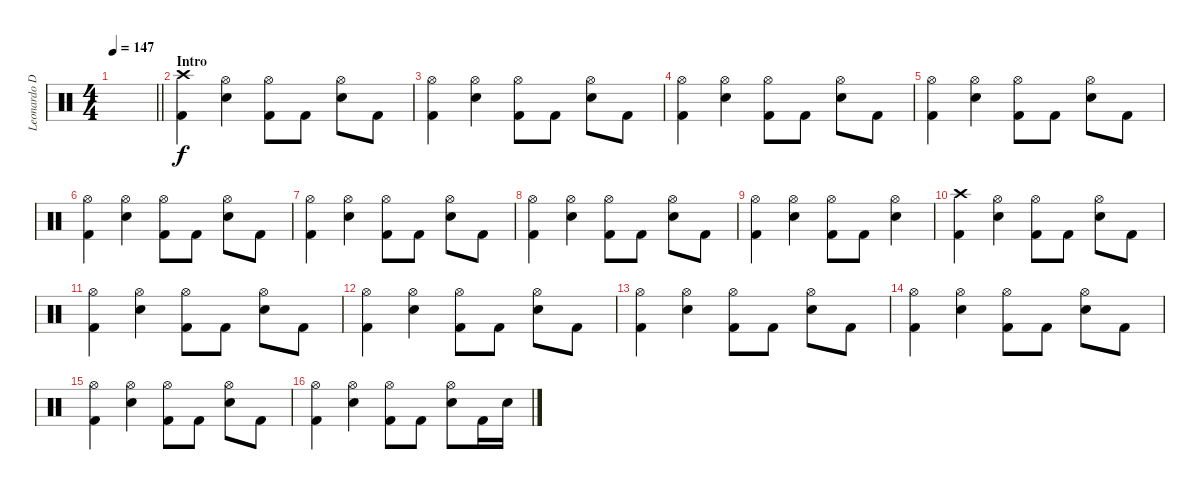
\track ("Leonardo De Cecco" "Leonardo D") {instrument percussion}
\staff {score}
\articulation defaults
\ts (4 4)
\tempo 147
\tempo 80
\tempo 147
\clef neutral
\barLineRight lightlight
\ks c
|
\section ("" "Intro")
("Crash high (hit)" "Kick (hit) 2").4 ("Hi-Hat (open)" "Electric Snare (hit)").4 ("Hi-Hat (open)" "Kick (hit) 2").8 "Kick (hit) 2".8 ("Hi-Hat (open)" "Electric Snare (hit)").8 "Kick (hit) 2".8 |
("Hi-Hat (open)" "Kick (hit) 2").4 ("Hi-Hat (open)" "Electric Snare (hit)").4 ("Hi-Hat (open)" "Kick (hit) 2").8 "Kick (hit) 2".8 ("Hi-Hat (open)" "Electric Snare (hit)").8 "Kick (hit) 2".8 |
("Hi-Hat (open)" "Kick (hit) 2").4 ("Hi-Hat (open)" "Electric Snare (hit)").4 ("Hi-Hat (open)" "Kick (hit) 2").8 "Kick (hit) 2".8 ("Hi-Hat (open)" "Electric Snare (hit)").8 "Kick (hit) 2".8 |
("Hi-Hat (open)" "Kick (hit) 2").4 ("Hi-Hat (open)" "Electric Snare (hit)").4 ("Hi-Hat (open)" "Kick (hit) 2").8 "Kick (hit) 2".8 ("Hi-Hat (open)" "Electric Snare (hit)").8 "Kick (hit) 2".8 |
("Hi-Hat (open)" "Kick (hit) 2").4 ("Hi-Hat (open)" "Electric Snare (hit)").4 ("Hi-Hat (open)" "Kick (hit) 2").8 "Kick (hit) 2".8 ("Hi-Hat (open)" "Electric Snare (hit)").8 "Kick (hit) 2".8 |
("Hi-Hat (open)" "Kick (hit) 2").4 ("Hi-Hat (open)" "Electric Snare (hit)").4 ("Hi-Hat (open)" "Kick (hit) 2").8 "Kick (hit) 2".8 ("Hi-Hat (open)" "Electric Snare (hit)").8 "Kick (hit) 2".8 |
("Hi-Hat (open)" "Kick (hit) 2").4 ("Hi-Hat (open)" "Electric Snare (hit)").4 ("Hi-Hat (open)" "Kick (hit) 2").8 "Kick (hit) 2".8 ("Hi-Hat (open)" "Electric Snare (hit)").8 "Kick (hit) 2".8 |
("Hi-Hat (open)" "Kick (hit) 2").4 ("Hi-Hat (open)" "Electric Snare (hit)").4 ("Hi-Hat (open)" "Kick (hit) 2").8 "Kick (hit) 2".8 ("Hi-Hat (open)" "Electric Snare (hit)").4 |
("Crash high (hit)" "Kick (hit) 2").4 ("Hi-Hat (open)" "Electric Snare (hit)").4 ("Hi-Hat (open)" "Kick (hit) 2").8 "Kick (hit) 2".8 ("Hi-Hat (open)" "Electric Snare (hit)").8 "Kick (hit) 2".8 |
("Hi-Hat (open)" "Kick (hit) 2").4 ("Hi-Hat (open)" "Electric Snare (hit)").4 ("Hi-Hat (open)" "Kick (hit) 2").8 "Kick (hit) 2".8 ("Hi-Hat (open)" "Electric Snare (hit)").8 "Kick (hit) 2".8 |
("Hi-Hat (open)" "Kick (hit) 2").4 ("Hi-Hat (open)" "Electric Snare (hit)").4 ("Hi-Hat (open)" "Kick (hit) 2").8 "Kick (hit) 2".8 ("Hi-Hat (open)" "Electric Snare (hit)").8 "Kick (hit) 2".8 |
("Hi-Hat (open)" "Kick (hit) 2").4 ("Hi-Hat (open)" "Electric Snare (hit)").4 ("Hi-Hat (open)" "Kick (hit) 2").8 "Kick (hit) 2".8 ("Hi-Hat (open)" "Electric Snare (hit)").8 "Kick (hit) 2".8 |
("Hi-Hat (open)" "Kick (hit) 2").4 ("Hi-Hat (open)" "Electric Snare (hit)").4 ("Hi-Hat (open)" "Kick (hit) 2").8 "Kick (hit) 2".8 ("Hi-Hat (open)" "Electric Snare (hit)").8 "Kick (hit) 2".8 |
("Hi-Hat (open)" "Kick (hit) 2").4 ("Hi-Hat (open)" "Electric Snare (hit)").4 ("Hi-Hat (open)" "Kick (hit) 2").8 "Kick (hit) 2".8 ("Hi-Hat (open)" "Electric Snare (hit)").8 "Kick (hit) 2".8 |
("Hi-Hat (open)" "Kick (hit) 2").4 ("Hi-Hat (open)" "Electric Snare (hit)").4 ("Hi-Hat (open)" "Kick (hit) 2").8 "Kick (hit) 2".8 ("Hi-Hat (open)" "Electric Snare (hit)").8 "Kick (hit) 2".16 "Electric Snare (hit)".16
